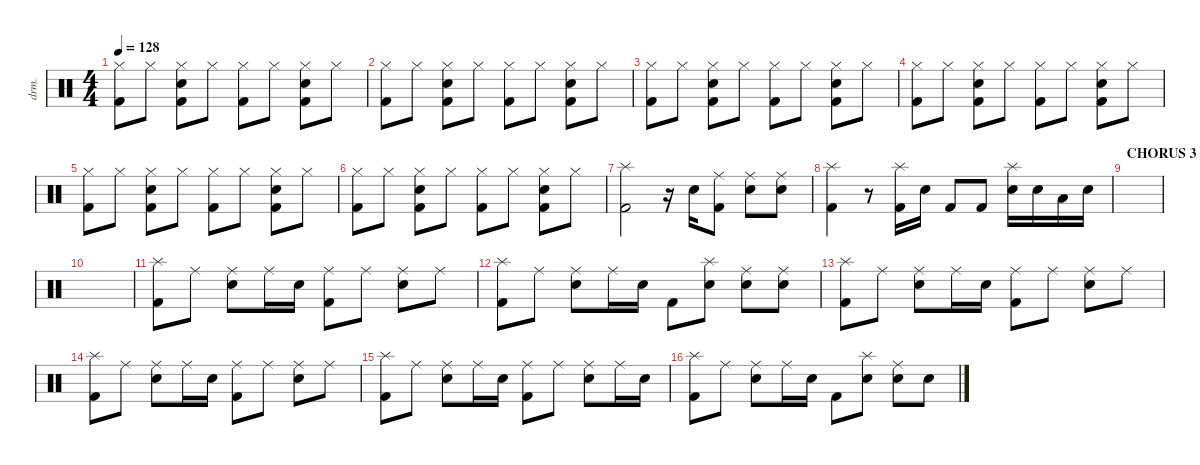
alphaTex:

\defaultSystemsLayout 4
\hideDynamics
\bracketExtendMode nobrackets
\track ("Drumkit" "drm.") {instrument percussion}
\staff {score}
\articulation defaults
\ts (4 4)
\tempo 128
\clef neutral
\ks c
("Kick (hit) 2" "Hi-Hat (closed)").8{dy mf beam Down} "Hi-Hat (closed)".8{beam Down} ("Kick (hit) 2" "Snare (hit) 2" "Hi-Hat (closed)").8{beam Down} "Hi-Hat (closed)".8{beam Down} ("Kick (hit) 2" "Hi-Hat (closed)").8{beam Down} "Hi-Hat (closed)".8{beam Down} ("Kick (hit) 2" "Snare (hit) 2" "Hi-Hat (closed)").8{beam Down} "Hi-Hat (closed)".8{beam Down} |
("Kick (hit) 2" "Hi-Hat (closed)").8{beam Down} "Hi-Hat (closed)".8{beam Down} ("Kick (hit) 2" "Snare (hit) 2" "Hi-Hat (closed)").8{beam Down} "Hi-Hat (closed)".8{beam Down} ("Kick (hit) 2" "Hi-Hat (closed)").8{beam Down} "Hi-Hat (closed)".8{beam Down} ("Kick (hit) 2" "Snare (hit) 2" "Hi-Hat (closed)").8{beam Down} "Hi-Hat (closed)".8{beam Down} |
("Kick (hit) 2" "Hi-Hat (closed)").8{beam Down} "Hi-Hat (closed)".8{beam Down} ("Kick (hit) 2" "Snare (hit) 2" "Hi-Hat (closed)").8{beam Down} "Hi-Hat (closed)".8{beam Down} ("Kick (hit) 2" "Hi-Hat (closed)").8{beam Down} "Hi-Hat (closed)".8{beam Down} ("Kick (hit) 2" "Snare (hit) 2" "Hi-Hat (closed)").8{beam Down} "Hi-Hat (closed)".8{beam Down} |
("Kick (hit) 2" "Hi-Hat (closed)").8{beam Down} "Hi-Hat (closed)".8{beam Down} ("Kick (hit) 2" "Snare (hit) 2" "Hi-Hat (closed)").8{beam Down} "Hi-Hat (closed)".8{beam Down} ("Kick (hit) 2" "Hi-Hat (closed)").8{beam Down} "Hi-Hat (closed)".8{beam Down} ("Kick (hit) 2" "Snare (hit) 2" "Hi-Hat (closed)").8{beam Down} "Hi-Hat (closed)".8{beam Down} |
("Kick (hit) 2" "Hi-Hat (closed)").8{beam Down} "Hi-Hat (closed)".8{beam Down} ("Kick (hit) 2" "Snare (hit) 2" "Hi-Hat (closed)").8{beam Down} "Hi-Hat (closed)".8{beam Down} ("Kick (hit) 2" "Hi-Hat (closed)").8{beam Down} "Hi-Hat (closed)".8{beam Down} ("Kick (hit) 2" "Snare (hit) 2" "Hi-Hat (closed)").8{beam Down} "Hi-Hat (closed)".8{beam Down} |
("Kick (hit) 2" "Hi-Hat (closed)").8{beam Down} "Hi-Hat (closed)".8{beam Down} ("Kick (hit) 2" "Snare (hit) 2" "Hi-Hat (closed)").8{beam Down} "Hi-Hat (closed)".8{beam Down} ("Kick (hit) 2" "Hi-Hat (closed)").8{beam Down} "Hi-Hat (closed)".8{beam Down} ("Kick (hit) 2" "Snare (hit) 2" "Hi-Hat (closed)").8{beam Down} "Hi-Hat (closed)".8{beam Down} |
("Kick (hit) 2" "Splash (hit)").2{beam Down} r.16{beam Down} "Snare (hit) 2".16{beam Down} ("Ride (middle)" "Kick (hit) 2").8{beam Down} ("Ride (middle)" "Snare (hit) 2").8{beam Down} ("Ride (middle)" "Snare (hit) 2").8{beam Down} |
("Kick (hit) 2" "Splash (hit)").4{beam Down} r.8{beam Down} ("Kick (hit) 2" "Splash (hit)").16{beam Down} "Snare (hit) 2".16{beam Down} "Kick (hit) 2".8{beam Up} "Kick (hit) 2".8{beam Up} ("Snare (hit) 2" "Splash (hit)").16{beam Down} "Snare (hit) 2".16{beam Down} "Low Tom (hit)".16{beam Down} "Snare (hit) 2".16{beam Down} |
\section ("" "CHORUS 3")
|
|
("Kick (hit) 2" "Splash (hit)").8{beam Down} "Ride (middle)".8{beam Down} ("Ride (middle)" "Snare (hit) 2").8{beam Down} "Ride (middle)".16{beam Down} "Snare (hit) 2".16{beam Down} ("Ride (middle)" "Kick (hit) 2").8{beam Down} "Ride (middle)".8{beam Down} ("Ride (middle)" "Snare (hit) 2").8{beam Down} "Ride (middle)".8{beam Down} |
("Kick (hit) 2" "Splash (hit)").8{beam Down} "Ride (middle)".8{beam Down} ("Ride (middle)" "Snare (hit) 2").8{beam Down} "Ride (middle)".16{beam Down} "Snare (hit) 2".16{beam Down} "Kick (hit) 2".8{beam Down} ("Snare (hit) 2" "Splash (hit)").8{beam Down} ("Ride (middle)" "Snare (hit) 2").8{beam Down} ("Ride (middle)" "Snare (hit) 2").8{beam Down} |
("Kick (hit) 2" "Splash (hit)").8{beam Down} "Ride (middle)".8{beam Down} ("Ride (middle)" "Snare (hit) 2").8{beam Down} "Ride (middle)".16{beam Down} "Snare (hit) 2".16{beam Down} ("Ride (middle)" "Kick (hit) 2").8{beam Down} "Ride (middle)".8{beam Down} ("Ride (middle)" "Snare (hit) 2").8{beam Down} "Ride (middle)".8{beam Down} |
("Kick (hit) 2" "Splash (hit)").8{beam Down} "Ride (middle)".8{beam Down} ("Ride (middle)" "Snare (hit) 2").8{beam Down} "Ride (middle)".16{beam Down} "Snare (hit) 2".16{beam Down} ("Ride (middle)" "Kick (hit) 2").8{beam Down} "Ride (middle)".8{beam Down} ("Ride (middle)" "Snare (hit) 2").8{beam Down} "Ride (middle)".8{beam Down} |
("Kick (hit) 2" "Splash (hit)").8{beam Down} "Ride (middle)".8{beam Down} ("Ride (middle)" "Snare (hit) 2").8{beam Down} "Ride (middle)".16{beam Down} "Snare (hit) 2".16{beam Down} ("Ride (middle)" "Kick (hit) 2").8{beam Down} "Ride (middle)".8{beam Down} ("Ride (middle)" "Snare (hit) 2").8{beam Down} "Ride (middle)".16{beam Down} "Snare (hit) 2".16{beam Down} |
("Kick (hit) 2" "Splash (hit)").8{beam Down} "Ride (middle)".8{beam Down} ("Ride (middle)" "Snare (hit) 2").8{beam Down} "Ride (middle)".16{beam Down} "Snare (hit) 2".16{beam Down} "Kick (hit) 2".8{beam Down} ("Snare (hit) 2" "Splash (hit)").8{beam Down} ("Ride (middle)" "Snare (hit) 2").8{beam Down} "Snare (hit) 2".8{beam Down}
